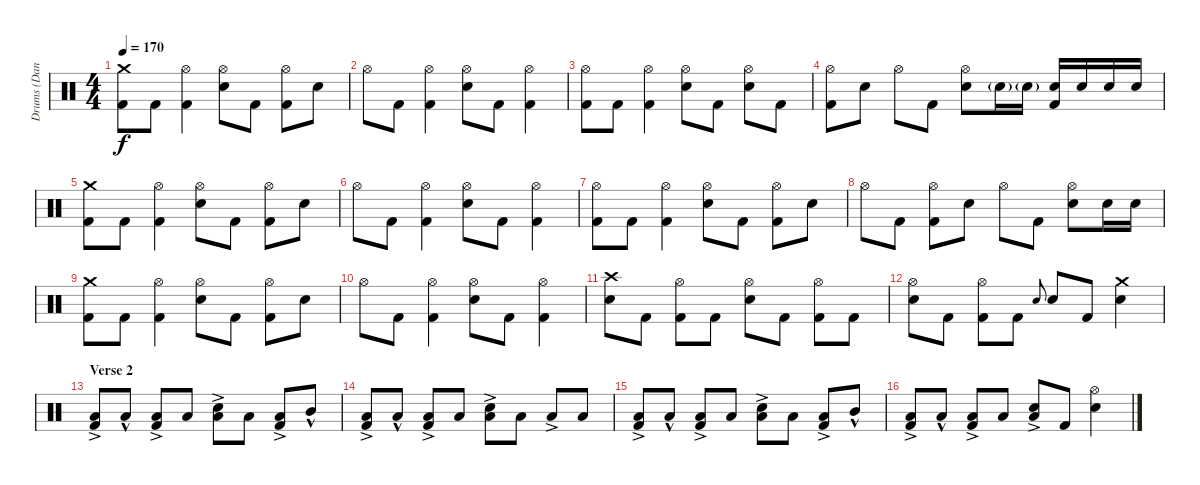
\track ("Drums (Dan Trapp)" "Drums (Dan") {instrument percussion}
\staff {score}
\articulation defaults
\ts (4 4)
\tempo 170
\clef neutral
\ks c
("Kick (hit) 2" "Crash medium (hit)").8{dy f} "Kick (hit) 2".8 ("Kick (hit) 2" "Hi-Hat (open)").4 ("Snare (hit) 2" "Hi-Hat (open)").8 "Kick (hit) 2".8 ("Kick (hit) 2" "Hi-Hat (open)").8 "Snare (hit) 2".8 |
"Hi-Hat (open)".8 "Kick (hit) 2".8 ("Kick (hit) 2" "Hi-Hat (open)").4 ("Snare (hit) 2" "Hi-Hat (open)").8 "Kick (hit) 2".8 ("Kick (hit) 2" "Hi-Hat (open)").4 |
("Kick (hit) 2" "Hi-Hat (open)").8 "Kick (hit) 2".8 ("Kick (hit) 2" "Hi-Hat (open)").4 ("Snare (hit) 2" "Hi-Hat (open)").8 "Kick (hit) 2".8 ("Hi-Hat (open)" "Snare (hit) 2").8 "Kick (hit) 2".8 |
("Kick (hit) 2" "Hi-Hat (open)").8 "Snare (hit) 2".8 "Hi-Hat (open)".8 "Kick (hit) 2".8 ("Snare (hit) 2" "Hi-Hat (open)").8 "Snare (hit) 2"{g}.16 "Snare (hit) 2"{g}.16 ("Snare (hit) 2" "Kick (hit) 2").16 "Snare (hit) 2".16 "Snare (hit) 2".16 "Snare (hit) 2".16 |
("Kick (hit) 2" "Crash medium (hit)").8 "Kick (hit) 2".8 ("Kick (hit) 2" "Hi-Hat (open)").4 ("Snare (hit) 2" "Hi-Hat (open)").8 "Kick (hit) 2".8 ("Kick (hit) 2" "Hi-Hat (open)").8 "Snare (hit) 2".8 |
"Hi-Hat (open)".8 "Kick (hit) 2".8 ("Kick (hit) 2" "Hi-Hat (open)").4 ("Snare (hit) 2" "Hi-Hat (open)").8 "Kick (hit) 2".8 ("Kick (hit) 2" "Hi-Hat (open)").4 |
("Kick (hit) 2" "Hi-Hat (open)").8 "Kick (hit) 2".8 ("Kick (hit) 2" "Hi-Hat (open)").4 ("Snare (hit) 2" "Hi-Hat (open)").8 "Kick (hit) 2".8 ("Kick (hit) 2" "Hi-Hat (open)").8 "Snare (hit) 2".8 |
"Hi-Hat (open)".8 "Kick (hit) 2".8 ("Kick (hit) 2" "Hi-Hat (open)").8 "Snare (hit) 2".8 "Hi-Hat (open)".8 "Kick (hit) 2".8 ("Hi-Hat (open)" "Snare (hit) 2").8 "Snare (hit) 2".16 "Snare (hit) 2".16 |
("Kick (hit) 2" "Crash medium (hit)").8 "Kick (hit) 2".8 ("Kick (hit) 2" "Hi-Hat (open)").4 ("Snare (hit) 2" "Hi-Hat (open)").8 "Kick (hit) 2".8 ("Kick (hit) 2" "Hi-Hat (open)").8 "Snare (hit) 2".8 |
"Hi-Hat (open)".8 "Kick (hit) 2".8 ("Kick (hit) 2" "Hi-Hat (open)").4 ("Snare (hit) 2" "Hi-Hat (open)").8 "Kick (hit) 2".8 ("Kick (hit) 2" "Hi-Hat (open)").4 |
("Snare (hit) 2" "Crash high (hit)").8 "Kick (hit) 2".8 ("Kick (hit) 2" "Hi-Hat (open)").8 "Kick (hit) 2".8 ("Snare (hit) 2" "Hi-Hat (open)").8 "Kick (hit) 2".8 ("Kick (hit) 2" "Hi-Hat (open)").8 "Kick (hit) 2".8 |
("Hi-Hat (open)" "Snare (hit) 2").8 "Kick (hit) 2".8 ("Kick (hit) 2" "Hi-Hat (open)").8 "Kick (hit) 2".8 "Snare (hit)".8{gr onbeat} "Snare (hit) 2".8 "Kick (hit) 2".8 ("Snare (hit) 2" "Crash medium (hit)").4 |
\section ("" "Verse 2")
("Kick (hit) 2" "Low Tom (hit)"{ac}).8 "Low Tom (hit)"{hac}.8 ("Kick (hit) 2" "Low Tom (hit)"{ac}).8 "Low Tom (hit)".8 ("Low Tom (hit)"{ac} "Snare (hit) 2").8 "Low Tom (hit)".8 ("Kick (hit) 2" "Low Tom (hit)"{ac}).8 "Mid Tom (hit)"{hac}.8 |
("Low Tom (hit)"{ac} "Kick (hit) 2").8 "Low Tom (hit)"{hac}.8 ("Low Tom (hit)"{ac} "Kick (hit) 2").8 "Low Tom (hit)".8 ("Snare (hit) 2" "Low Tom (hit)"{ac}).8 "Low Tom (hit)".8 "Low Tom (hit)"{ac}.8 "Low Tom (hit)".8 |
("Kick (hit) 2" "Low Tom (hit)"{ac}).8 "Low Tom (hit)"{hac}.8 ("Low Tom (hit)"{ac} "Kick (hit) 2").8 "Low Tom (hit)".8 ("Snare (hit) 2" "Low Tom (hit)"{ac}).8 "Low Tom (hit)".8 ("Low Tom (hit)"{ac} "Kick (hit) 2").8 "Mid Tom (hit)"{hac}.8 |
("Kick (hit) 2" "Low Tom (hit)"{ac}).8 "Low Tom (hit)"{hac}.8 ("Low Tom (hit)"{ac} "Kick (hit) 2").8 "Low Tom (hit)".8 ("Snare (hit) 2" "Low Tom (hit)"{ac}).8 "Kick (hit) 2".8 ("Snare (hit) 2" "Hi-Hat (open)").4
